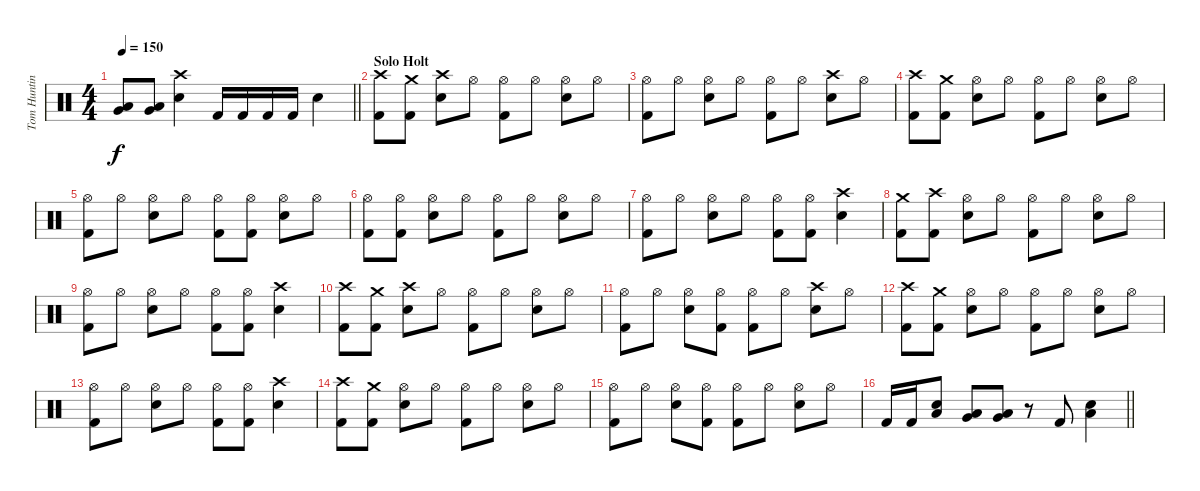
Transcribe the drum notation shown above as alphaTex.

\track ("Tom Hunting" "Tom Huntin") {instrument percussion}
\staff {score}
\articulation defaults
\ts (4 4)
\tempo 150
\clef neutral
\barLineRight lightlight
\ks c
("Low Tom (hit)" "Very Low Tom (hit)").8{dy f} ("Low Tom (hit)" "Very Low Tom (hit)").8 ("Crash high (hit)" "Snare (hit) 2").4 "Kick (hit) 2".16 "Kick (hit) 2".16 "Kick (hit) 2".16 "Kick (hit) 2".16 "Snare (hit) 2".4 |
\section ("" "Solo Holt")
("Crash high (hit)" "Kick (hit) 2").8 ("Crash medium (hit)" "Kick (hit) 2").8 ("Crash high (hit)" "Snare (hit) 2").8 "Hi-Hat (open)".8 ("Hi-Hat (open)" "Kick (hit) 2").8 "Hi-Hat (open)".8 ("Hi-Hat (open)" "Snare (hit) 2").8 "Hi-Hat (open)".8 |
("Hi-Hat (open)" "Kick (hit) 2").8 "Hi-Hat (open)".8 ("Hi-Hat (open)" "Snare (hit) 2").8 "Hi-Hat (open)".8 ("Hi-Hat (open)" "Kick (hit) 2").8 "Hi-Hat (open)".8 ("Crash high (hit)" "Snare (hit) 2").8 "Hi-Hat (open)".8 |
("Crash high (hit)" "Kick (hit) 2").8 ("Crash medium (hit)" "Kick (hit) 2").8 ("Hi-Hat (open)" "Snare (hit) 2").8 "Hi-Hat (open)".8 ("Hi-Hat (open)" "Kick (hit) 2").8 "Hi-Hat (open)".8 ("Hi-Hat (open)" "Snare (hit) 2").8 "Hi-Hat (open)".8 |
("Hi-Hat (open)" "Kick (hit) 2").8 "Hi-Hat (open)".8 ("Hi-Hat (open)" "Snare (hit) 2").8 "Hi-Hat (open)".8 ("Hi-Hat (open)" "Kick (hit) 2").8 ("Hi-Hat (open)" "Kick (hit) 2").8 ("Hi-Hat (open)" "Snare (hit) 2").8 "Hi-Hat (open)".8 |
("Hi-Hat (open)" "Kick (hit) 2").8 ("Hi-Hat (open)" "Kick (hit) 2").8 ("Hi-Hat (open)" "Snare (hit) 2").8 "Hi-Hat (open)".8 ("Hi-Hat (open)" "Kick (hit) 2").8 "Hi-Hat (open)".8 ("Hi-Hat (open)" "Snare (hit) 2").8 "Hi-Hat (open)".8 |
("Hi-Hat (open)" "Kick (hit) 2").8 "Hi-Hat (open)".8 ("Hi-Hat (open)" "Snare (hit) 2").8 "Hi-Hat (open)".8 ("Hi-Hat (open)" "Kick (hit) 2").8 ("Hi-Hat (open)" "Kick (hit) 2").8 ("Crash high (hit)" "Snare (hit) 2").4 |
("Crash medium (hit)" "Kick (hit) 2").8 ("Crash high (hit)" "Kick (hit) 2").8 ("Hi-Hat (open)" "Snare (hit) 2").8 "Hi-Hat (open)".8 ("Hi-Hat (open)" "Kick (hit) 2").8 "Hi-Hat (open)".8 ("Hi-Hat (open)" "Snare (hit) 2").8 "Hi-Hat (open)".8 |
("Hi-Hat (open)" "Kick (hit) 2").8 "Hi-Hat (open)".8 ("Hi-Hat (open)" "Snare (hit) 2").8 "Hi-Hat (open)".8 ("Hi-Hat (open)" "Kick (hit) 2").8 ("Hi-Hat (open)" "Kick (hit) 2").8 ("Crash high (hit)" "Snare (hit) 2").4 |
("Crash high (hit)" "Kick (hit) 2").8 ("Crash medium (hit)" "Kick (hit) 2").8 ("Crash high (hit)" "Snare (hit) 2").8 "Hi-Hat (open)".8 ("Hi-Hat (open)" "Kick (hit) 2").8 "Hi-Hat (open)".8 ("Hi-Hat (open)" "Snare (hit) 2").8 "Hi-Hat (open)".8 |
("Hi-Hat (open)" "Kick (hit) 2").8 "Hi-Hat (open)".8 ("Hi-Hat (open)" "Snare (hit) 2").8 ("Hi-Hat (open)" "Kick (hit) 2").8 ("Hi-Hat (open)" "Kick (hit) 2").8 "Hi-Hat (open)".8 ("Crash high (hit)" "Snare (hit) 2").8 "Hi-Hat (open)".8 |
("Crash high (hit)" "Kick (hit) 2").8 ("Crash medium (hit)" "Kick (hit) 2").8 ("Hi-Hat (open)" "Snare (hit) 2").8 "Hi-Hat (open)".8 ("Hi-Hat (open)" "Kick (hit) 2").8 "Hi-Hat (open)".8 ("Hi-Hat (open)" "Snare (hit) 2").8 "Hi-Hat (open)".8 |
("Hi-Hat (open)" "Kick (hit) 2").8 "Hi-Hat (open)".8 ("Hi-Hat (open)" "Snare (hit) 2").8 "Hi-Hat (open)".8 ("Hi-Hat (open)" "Kick (hit) 2").8 ("Hi-Hat (open)" "Kick (hit) 2").8 ("Crash high (hit)" "Snare (hit) 2").4 |
("Crash high (hit)" "Kick (hit) 2").8 ("Crash medium (hit)" "Kick (hit) 2").8 ("Hi-Hat (open)" "Snare (hit) 2").8 "Hi-Hat (open)".8 ("Hi-Hat (open)" "Kick (hit) 2").8 "Hi-Hat (open)".8 ("Hi-Hat (open)" "Snare (hit) 2").8 "Hi-Hat (open)".8 |
("Hi-Hat (open)" "Kick (hit) 2").8 "Hi-Hat (open)".8 ("Hi-Hat (open)" "Snare (hit) 2").8 ("Hi-Hat (open)" "Kick (hit) 2").8 ("Hi-Hat (open)" "Kick (hit) 2").8 "Hi-Hat (open)".8 ("Hi-Hat (open)" "Snare (hit) 2").8 "Hi-Hat (open)".8 |
\barLineRight lightlight "Kick (hit) 2".16 "Kick (hit) 2".16
("Low Floor Tom (hit)" "Snare (hit) 2").8 ("Low Tom (hit)" "Very Low Tom (hit)").8 ("Very Low Tom (hit)" "Low Floor Tom (hit)").8 r.8 "Kick (hit) 2".8 ("Low Floor Tom (hit)" "Snare (hit) 2").4
